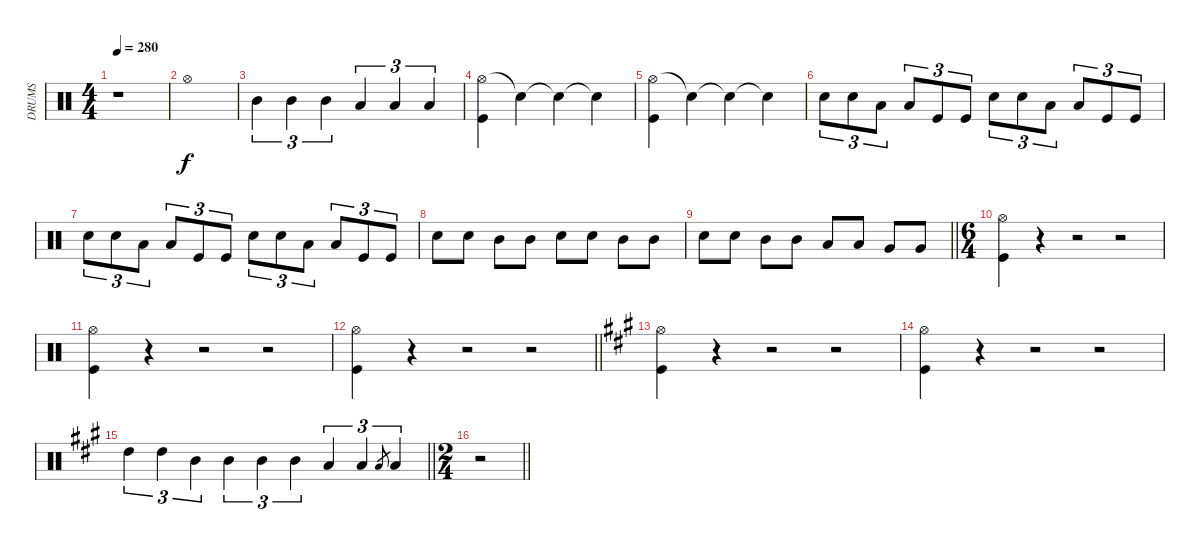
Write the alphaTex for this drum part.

\track ("DRUMS" "DRUMS") {instrument percussion}
\staff {score}
\articulation defaults
\ts (4 4)
\tempo 280
\clef neutral
\ks aminor
r.1{dy f} |
"Hi-Hat (open)".1 |
"Mid Tom (hit)".4{tu (3 2)} "Mid Tom (hit)".4{tu (3 2)} "Mid Tom (hit)".4{tu (3 2)} "Low Tom (hit)".4{tu (3 2)} "Low Tom (hit)".4{tu (3 2)} "Low Tom (hit)".4{tu (3 2)} |
("Hi-Hat (open)" "Kick (hit)").4 "Snare (hit)"{t}.4 "Snare (hit)"{t}.4 "Snare (hit)"{t}.4 |
("Hi-Hat (open)" "Kick (hit)").4 "Snare (hit)"{t}.4 "Snare (hit)"{t}.4 "Snare (hit)"{t}.4 |
"Snare (hit) 2".8{tu (3 2)} "Snare (hit) 2".8{tu (3 2)} "Low Tom (hit)".8{tu (3 2)} "Low Tom (hit)".8{tu (3 2)} "Kick (hit)".8{tu (3 2)} "Kick (hit)".8{tu (3 2)} "Snare (hit) 2".8{tu (3 2)} "Snare (hit) 2".8{tu (3 2)} "Low Tom (hit)".8{tu (3 2)} "Low Tom (hit)".8{tu (3 2)} "Kick (hit)".8{tu (3 2)} "Kick (hit)".8{tu (3 2)} |
"Snare (hit) 2".8{tu (3 2)} "Snare (hit) 2".8{tu (3 2)} "Low Tom (hit)".8{tu (3 2)} "Low Tom (hit)".8{tu (3 2)} "Kick (hit)".8{tu (3 2)} "Kick (hit)".8{tu (3 2)} "Snare (hit) 2".8{tu (3 2)} "Snare (hit) 2".8{tu (3 2)} "Low Tom (hit)".8{tu (3 2)} "Low Tom (hit)".8{tu (3 2)} "Kick (hit)".8{tu (3 2)} "Kick (hit)".8{tu (3 2)} |
"Snare (hit) 2".8 "Snare (hit) 2".8 "Mid Tom (hit)".8 "Mid Tom (hit)".8 "Snare (hit) 2".8 "Snare (hit) 2".8 "Mid Tom (hit)".8 "Mid Tom (hit)".8 |
\barLineRight lightlight "Snare (hit) 2".8 "Snare (hit) 2".8 "Mid Tom (hit)".8 "Mid Tom (hit)".8 "Low Tom (hit)".8 "Low Tom (hit)".8 "Very Low Tom (hit)".8 "Very Low Tom (hit)".8
|
\ts (6 4)
("Hi-Hat (open)" "Kick (hit)").4 r.4 r.2 r.2 |
("Hi-Hat (open)" "Kick (hit)").4 r.4 r.2 r.2 |
\barLineRight lightlight
("Hi-Hat (open)" "Kick (hit)").4 r.4 r.2 r.2 |
\ks a
("Hi-Hat (open)" "Kick (hit)").4 r.4 r.2 r.2 |
("Hi-Hat (open)" "Kick (hit)").4 r.4 r.2 r.2 |
\barLineRight lightlight "High Tom (hit)".4{tu (3 2)} "High Tom (hit)".4{tu (3 2)} "Mid Tom (hit)".4{tu (3 2)} "Mid Tom (hit)".4{tu (3 2)} "Mid Tom (hit)".4{tu (3 2)} "Mid Tom (hit)".4{tu (3 2)} "Low Tom (hit)".4{tu (3 2)} "Low Tom (hit)".4{tu (3 2)} "Low Tom (hit)".8{gr} "Low Tom (hit)".4{tu (3 2)}
|
\ts (2 4)
\barLineRight lightlight
r.2
